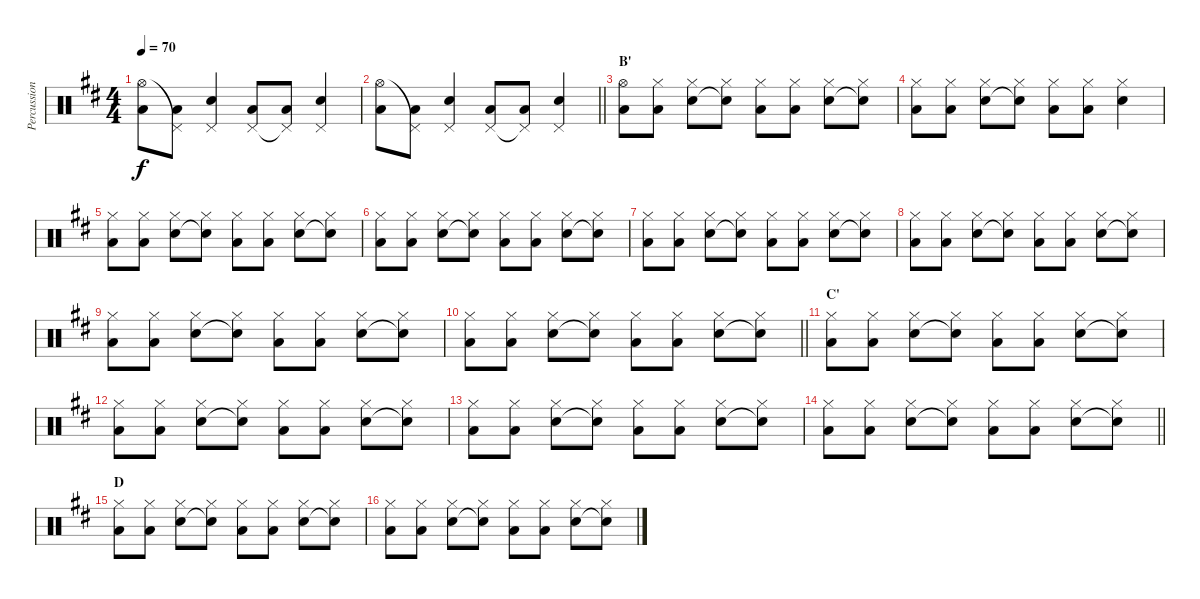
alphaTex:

\track ("Percussions" "Percussion") {instrument percussion}
\staff {score}
\articulation defaults
\ts (4 4)
\tempo 70
\clef neutral
\ks d
("Hi-Hat (open)" "Low Floor Tom (hit)").8{dy f} ("Pedal Hi-Hat (hit)"{t} "Low Floor Tom (hit)").8 ("Pedal Hi-Hat (hit)" "Electric Snare (hit)").4 ("Pedal Hi-Hat (hit)" "Low Floor Tom (hit)").8 ("Pedal Hi-Hat (hit)"{t} "Low Floor Tom (hit)").8 ("Pedal Hi-Hat (hit)" "Electric Snare (hit)").4 |
\barLineRight lightlight
("Hi-Hat (open)" "Low Floor Tom (hit)").8 ("Pedal Hi-Hat (hit)"{t} "Low Floor Tom (hit)").8 ("Pedal Hi-Hat (hit)" "Electric Snare (hit)").4 ("Pedal Hi-Hat (hit)" "Low Floor Tom (hit)").8 ("Pedal Hi-Hat (hit)"{t} "Low Floor Tom (hit)").8 ("Pedal Hi-Hat (hit)" "Electric Snare (hit)").4 |
\section ("" "B'")
("Hi-Hat (open)" "Low Floor Tom (hit)").8 ("Hi-Hat (closed)" "Low Floor Tom (hit)").8 ("Hi-Hat (closed)" "Electric Snare (hit)").8 ("Hi-Hat (closed)" "Snare (hit)"{t}).8 ("Hi-Hat (closed)" "Low Floor Tom (hit)").8 ("Hi-Hat (closed)" "Low Floor Tom (hit)").8 ("Hi-Hat (closed)" "Electric Snare (hit)").8 ("Hi-Hat (closed)" "Snare (hit)"{t}).8 |
("Hi-Hat (closed)" "Low Floor Tom (hit)").8 ("Hi-Hat (closed)" "Low Floor Tom (hit)").8 ("Hi-Hat (closed)" "Electric Snare (hit)").8 ("Hi-Hat (closed)" "Snare (hit)"{t}).8 ("Hi-Hat (closed)" "Low Floor Tom (hit)").8 ("Hi-Hat (closed)" "Low Floor Tom (hit)").8 ("Hi-Hat (closed)" "Electric Snare (hit)").4 |
("Hi-Hat (closed)" "Low Floor Tom (hit)").8 ("Hi-Hat (closed)" "Low Floor Tom (hit)").8 ("Hi-Hat (closed)" "Electric Snare (hit)").8 ("Hi-Hat (closed)" "Snare (hit)"{t}).8 ("Hi-Hat (closed)" "Low Floor Tom (hit)").8 ("Hi-Hat (closed)" "Low Floor Tom (hit)").8 ("Hi-Hat (closed)" "Electric Snare (hit)").8 ("Hi-Hat (closed)" "Snare (hit)"{t}).8 |
("Hi-Hat (closed)" "Low Floor Tom (hit)").8 ("Hi-Hat (closed)" "Low Floor Tom (hit)").8 ("Hi-Hat (closed)" "Electric Snare (hit)").8 ("Hi-Hat (closed)" "Snare (hit)"{t}).8 ("Hi-Hat (closed)" "Low Floor Tom (hit)").8 ("Hi-Hat (closed)" "Low Floor Tom (hit)").8 ("Hi-Hat (closed)" "Electric Snare (hit)").8 ("Hi-Hat (closed)" "Snare (hit)"{t}).8 |
("Hi-Hat (closed)" "Low Floor Tom (hit)").8 ("Hi-Hat (closed)" "Low Floor Tom (hit)").8 ("Hi-Hat (closed)" "Electric Snare (hit)").8 ("Hi-Hat (closed)" "Snare (hit)"{t}).8 ("Hi-Hat (closed)" "Low Floor Tom (hit)").8 ("Hi-Hat (closed)" "Low Floor Tom (hit)").8 ("Hi-Hat (closed)" "Electric Snare (hit)").8 ("Hi-Hat (closed)" "Snare (hit)"{t}).8 |
("Hi-Hat (closed)" "Low Floor Tom (hit)").8 ("Hi-Hat (closed)" "Low Floor Tom (hit)").8 ("Hi-Hat (closed)" "Electric Snare (hit)").8 ("Hi-Hat (closed)" "Snare (hit)"{t}).8 ("Hi-Hat (closed)" "Low Floor Tom (hit)").8 ("Hi-Hat (closed)" "Low Floor Tom (hit)").8 ("Hi-Hat (closed)" "Electric Snare (hit)").8 ("Hi-Hat (closed)" "Snare (hit)"{t}).8 |
("Hi-Hat (closed)" "Low Floor Tom (hit)").8 ("Hi-Hat (closed)" "Low Floor Tom (hit)").8 ("Hi-Hat (closed)" "Electric Snare (hit)").8 ("Hi-Hat (closed)" "Snare (hit)"{t}).8 ("Hi-Hat (closed)" "Low Floor Tom (hit)").8 ("Hi-Hat (closed)" "Low Floor Tom (hit)").8 ("Hi-Hat (closed)" "Electric Snare (hit)").8 ("Hi-Hat (closed)" "Snare (hit)"{t}).8 |
\barLineRight lightlight
("Hi-Hat (closed)" "Low Floor Tom (hit)").8 ("Hi-Hat (closed)" "Low Floor Tom (hit)").8 ("Hi-Hat (closed)" "Electric Snare (hit)").8 ("Hi-Hat (closed)" "Snare (hit)"{t}).8 ("Hi-Hat (closed)" "Low Floor Tom (hit)").8 ("Hi-Hat (closed)" "Low Floor Tom (hit)").8 ("Hi-Hat (closed)" "Electric Snare (hit)").8 ("Hi-Hat (closed)" "Snare (hit)"{t}).8 |
\section ("" "C'")
("Hi-Hat (closed)" "Low Floor Tom (hit)").8 ("Hi-Hat (closed)" "Low Floor Tom (hit)").8 ("Hi-Hat (closed)" "Electric Snare (hit)").8 ("Hi-Hat (closed)" "Snare (hit)"{t}).8 ("Hi-Hat (closed)" "Low Floor Tom (hit)").8 ("Hi-Hat (closed)" "Low Floor Tom (hit)").8 ("Hi-Hat (closed)" "Electric Snare (hit)").8 ("Hi-Hat (closed)" "Snare (hit)"{t}).8 |
("Hi-Hat (closed)" "Low Floor Tom (hit)").8 ("Hi-Hat (closed)" "Low Floor Tom (hit)").8 ("Hi-Hat (closed)" "Electric Snare (hit)").8 ("Hi-Hat (closed)" "Snare (hit)"{t}).8 ("Hi-Hat (closed)" "Low Floor Tom (hit)").8 ("Hi-Hat (closed)" "Low Floor Tom (hit)").8 ("Hi-Hat (closed)" "Electric Snare (hit)").8 ("Hi-Hat (closed)" "Snare (hit)"{t}).8 |
("Hi-Hat (closed)" "Low Floor Tom (hit)").8 ("Hi-Hat (closed)" "Low Floor Tom (hit)").8 ("Hi-Hat (closed)" "Electric Snare (hit)").8 ("Hi-Hat (closed)" "Snare (hit)"{t}).8 ("Hi-Hat (closed)" "Low Floor Tom (hit)").8 ("Hi-Hat (closed)" "Low Floor Tom (hit)").8 ("Hi-Hat (closed)" "Electric Snare (hit)").8 ("Hi-Hat (closed)" "Snare (hit)"{t}).8 |
\barLineRight lightlight
("Hi-Hat (closed)" "Low Floor Tom (hit)").8 ("Hi-Hat (closed)" "Low Floor Tom (hit)").8 ("Hi-Hat (closed)" "Electric Snare (hit)").8 ("Hi-Hat (closed)" "Snare (hit)"{t}).8 ("Hi-Hat (closed)" "Low Floor Tom (hit)").8 ("Hi-Hat (closed)" "Low Floor Tom (hit)").8 ("Hi-Hat (closed)" "Electric Snare (hit)").8 ("Hi-Hat (closed)" "Snare (hit)"{t}).8 |
\section ("" "D")
("Hi-Hat (closed)" "Low Floor Tom (hit)").8 ("Hi-Hat (closed)" "Low Floor Tom (hit)").8 ("Hi-Hat (closed)" "Electric Snare (hit)").8 ("Hi-Hat (closed)" "Snare (hit)"{t}).8 ("Hi-Hat (closed)" "Low Floor Tom (hit)").8 ("Hi-Hat (closed)" "Low Floor Tom (hit)").8 ("Hi-Hat (closed)" "Electric Snare (hit)").8 ("Hi-Hat (closed)" "Snare (hit)"{t}).8 |
("Hi-Hat (closed)" "Low Floor Tom (hit)").8 ("Hi-Hat (closed)" "Low Floor Tom (hit)").8 ("Hi-Hat (closed)" "Electric Snare (hit)").8 ("Hi-Hat (closed)" "Snare (hit)"{t}).8 ("Hi-Hat (closed)" "Low Floor Tom (hit)").8 ("Hi-Hat (closed)" "Low Floor Tom (hit)").8 ("Hi-Hat (closed)" "Electric Snare (hit)").8 ("Hi-Hat (closed)" "Snare (hit)"{t}).8
